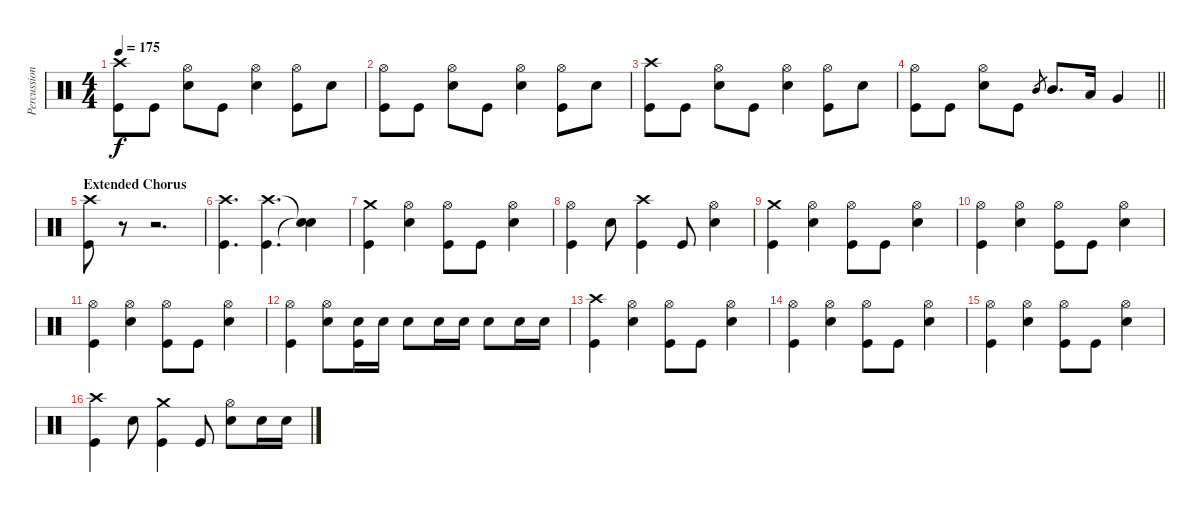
\track ("Percussion" "Percussion") {instrument percussion}
\staff {score}
\articulation defaults
\ts (4 4)
\tempo 175
\clef neutral
\ks c
("Crash high (hit)" "Kick (hit)").8{dy f} "Kick (hit)".8 ("Hi-Hat (open)" "Electric Snare (hit)").8 "Kick (hit)".8 ("Hi-Hat (open)" "Electric Snare (hit)").4 ("Hi-Hat (open)" "Kick (hit)").8 "Electric Snare (hit)".8 |
("Hi-Hat (open)" "Kick (hit)").8 "Kick (hit)".8 ("Hi-Hat (open)" "Electric Snare (hit)").8 "Kick (hit)".8 ("Hi-Hat (open)" "Electric Snare (hit)").4 ("Hi-Hat (open)" "Kick (hit)").8 "Electric Snare (hit)".8 |
("Crash high (hit)" "Kick (hit)").8 "Kick (hit)".8 ("Hi-Hat (open)" "Electric Snare (hit)").8 "Kick (hit)".8 ("Hi-Hat (open)" "Electric Snare (hit)").4 ("Hi-Hat (open)" "Kick (hit)").8 "Electric Snare (hit)".8 |
\barLineRight lightlight
("Hi-Hat (open)" "Kick (hit)").8 "Kick (hit)".8 ("Hi-Hat (open)" "Electric Snare (hit)").8 "Kick (hit)".8 "Mid Tom (hit)".8{gr} "Mid Tom (hit)".8{d} "Low Tom (hit)".16 "Very Low Tom (hit)".4 |
\section ("" "Extended Chorus")
("Crash high (hit)" "Kick (hit)").8 r.8{volume 0} r.2{d} |
("Crash high (hit)" "Kick (hit)").4{d volume 13} ("Crash high (hit)" "Kick (hit)").4{d} ("Snare (hit)"{t} "Snare (hit)"{t}).4 |
("Crash medium (hit)" "Kick (hit)").4 ("Hi-Hat (open)" "Electric Snare (hit)").4 ("Hi-Hat (open)" "Kick (hit)").8 "Kick (hit)".8 ("Hi-Hat (open)" "Electric Snare (hit)").4 |
("Hi-Hat (open)" "Kick (hit)").4 "Electric Snare (hit)".8 ("Crash high (hit)" "Kick (hit)").4 "Kick (hit)".8 ("Hi-Hat (open)" "Electric Snare (hit)").4 |
("Crash medium (hit)" "Kick (hit)").4 ("Hi-Hat (open)" "Electric Snare (hit)").4 ("Hi-Hat (open)" "Kick (hit)").8 "Kick (hit)".8 ("Hi-Hat (open)" "Electric Snare (hit)").4 |
("Hi-Hat (open)" "Kick (hit)").4 ("Hi-Hat (open)" "Electric Snare (hit)").4 ("Hi-Hat (open)" "Kick (hit)").8 "Kick (hit)".8 ("Hi-Hat (open)" "Electric Snare (hit)").4 |
("Hi-Hat (open)" "Kick (hit)").4 ("Hi-Hat (open)" "Electric Snare (hit)").4 ("Hi-Hat (open)" "Kick (hit)").8 "Kick (hit)".8 ("Hi-Hat (open)" "Electric Snare (hit)").4 |
("Hi-Hat (open)" "Kick (hit)").4 ("Hi-Hat (open)" "Electric Snare (hit)").8 ("Electric Snare (hit)" "Kick (hit)").16 "Electric Snare (hit)".16 "Electric Snare (hit)".8 "Electric Snare (hit)".16 "Electric Snare (hit)".16 "Electric Snare (hit)".8 "Electric Snare (hit)".16 "Electric Snare (hit)".16 |
("Crash high (hit)" "Kick (hit)").4 ("Hi-Hat (open)" "Electric Snare (hit)").4 ("Hi-Hat (open)" "Kick (hit)").8 "Kick (hit)".8 ("Hi-Hat (open)" "Electric Snare (hit)").4 |
("Hi-Hat (open)" "Kick (hit)").4 ("Hi-Hat (open)" "Electric Snare (hit)").4 ("Hi-Hat (open)" "Kick (hit)").8 "Kick (hit)".8 ("Hi-Hat (open)" "Electric Snare (hit)").4 |
("Hi-Hat (open)" "Kick (hit)").4 ("Hi-Hat (open)" "Electric Snare (hit)").4 ("Hi-Hat (open)" "Kick (hit)").8 "Kick (hit)".8 ("Hi-Hat (open)" "Electric Snare (hit)").4 |
("Crash high (hit)" "Kick (hit)").4 "Electric Snare (hit)".8 ("Crash medium (hit)" "Kick (hit)").4 "Kick (hit)".8 ("Hi-Hat (open)" "Electric Snare (hit)").8 "Electric Snare (hit)".16 "Electric Snare (hit)".16
